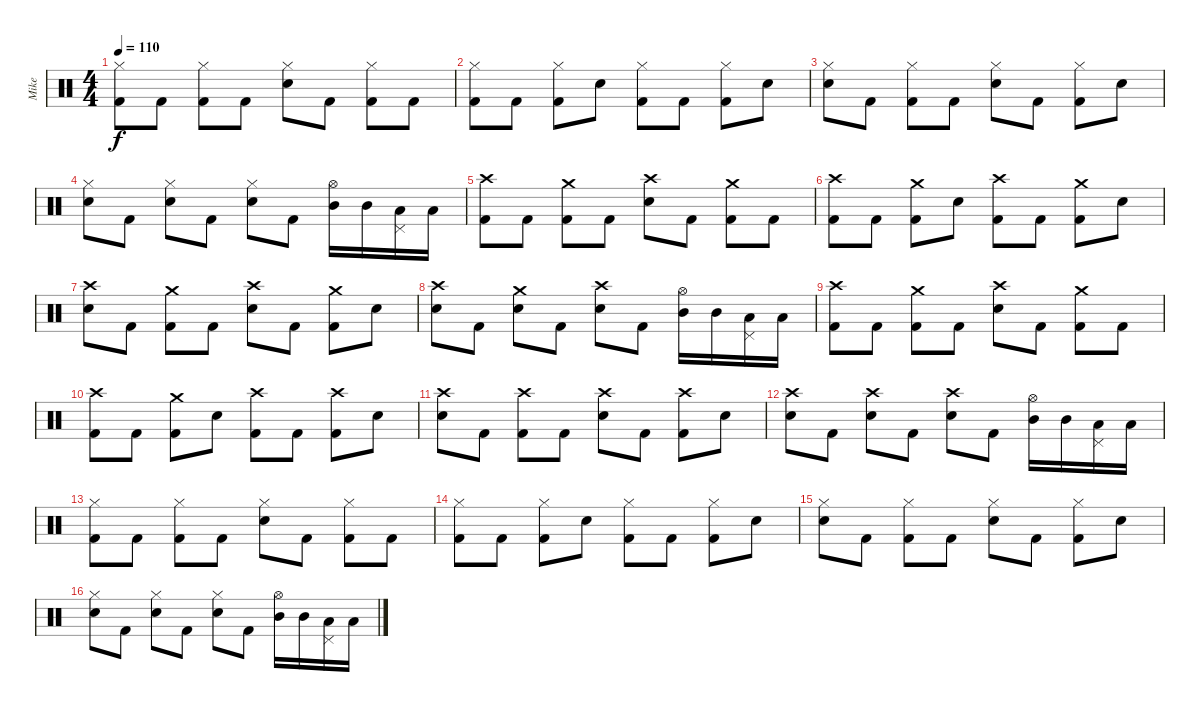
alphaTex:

\track ("Mike" "Mike") {instrument percussion}
\staff {score}
\articulation defaults
\ts (4 4)
\tempo 110
\clef neutral
\ks c
("Hi-Hat (closed)" "Kick (hit) 2").8{dy f} "Kick (hit) 2".8 ("Hi-Hat (closed)" "Kick (hit) 2").8 "Kick (hit) 2".8 ("Hi-Hat (closed)" "Electric Snare (hit)").8 "Kick (hit) 2".8 ("Hi-Hat (closed)" "Kick (hit) 2").8 "Kick (hit) 2".8 |
("Hi-Hat (closed)" "Kick (hit) 2").8 "Kick (hit) 2".8 ("Hi-Hat (closed)" "Kick (hit) 2").8 "Electric Snare (hit)".8 ("Hi-Hat (closed)" "Kick (hit) 2").8 "Kick (hit) 2".8 ("Hi-Hat (closed)" "Kick (hit) 2").8 "Electric Snare (hit)".8 |
("Hi-Hat (closed)" "Electric Snare (hit)").8 "Kick (hit) 2".8 ("Hi-Hat (closed)" "Kick (hit) 2").8 "Kick (hit) 2".8 ("Hi-Hat (closed)" "Electric Snare (hit)").8 "Kick (hit) 2".8 ("Hi-Hat (closed)" "Kick (hit) 2").8 "Electric Snare (hit)".8 |
("Hi-Hat (closed)" "Electric Snare (hit)").8 "Kick (hit) 2".8 ("Hi-Hat (closed)" "Electric Snare (hit)").8 "Kick (hit) 2".8 ("Hi-Hat (closed)" "Electric Snare (hit)").8 "Kick (hit) 2".8 ("Hi-Hat (open)" "Mid Tom (hit)").16 "Mid Tom (hit)".16 ("Pedal Hi-Hat (hit)" "Low Tom (hit)").16 "Low Tom (hit)".16 |
("Crash high (hit)" "Kick (hit) 2").8 "Kick (hit) 2".8 ("Crash medium (hit)" "Kick (hit) 2").8 "Kick (hit) 2".8 ("Crash high (hit)" "Electric Snare (hit)").8 "Kick (hit) 2".8 ("Crash medium (hit)" "Kick (hit) 2").8 "Kick (hit) 2".8 |
("Crash high (hit)" "Kick (hit) 2").8 "Kick (hit) 2".8 ("Crash medium (hit)" "Kick (hit) 2").8 "Electric Snare (hit)".8 ("Crash high (hit)" "Kick (hit) 2").8 "Kick (hit) 2".8 ("Crash medium (hit)" "Kick (hit) 2").8 "Electric Snare (hit)".8 |
("Crash high (hit)" "Electric Snare (hit)").8 "Kick (hit) 2".8 ("Crash medium (hit)" "Kick (hit) 2").8 "Kick (hit) 2".8 ("Crash high (hit)" "Electric Snare (hit)").8 "Kick (hit) 2".8 ("Crash medium (hit)" "Kick (hit) 2").8 "Electric Snare (hit)".8 |
("Crash high (hit)" "Electric Snare (hit)").8 "Kick (hit) 2".8 ("Crash medium (hit)" "Electric Snare (hit)").8 "Kick (hit) 2".8 ("Crash high (hit)" "Electric Snare (hit)").8 "Kick (hit) 2".8 ("Hi-Hat (open)" "Mid Tom (hit)").16 "Mid Tom (hit)".16 ("Pedal Hi-Hat (hit)" "Low Tom (hit)").16 "Low Tom (hit)".16 |
("Crash high (hit)" "Kick (hit) 2").8 "Kick (hit) 2".8 ("Crash medium (hit)" "Kick (hit) 2").8 "Kick (hit) 2".8 ("Crash high (hit)" "Electric Snare (hit)").8 "Kick (hit) 2".8 ("Crash medium (hit)" "Kick (hit) 2").8 "Kick (hit) 2".8 |
("Crash high (hit)" "Kick (hit) 2").8 "Kick (hit) 2".8 ("Crash medium (hit)" "Kick (hit) 2").8 "Electric Snare (hit)".8 ("Crash high (hit)" "Kick (hit) 2").8 "Kick (hit) 2".8 ("Crash high (hit)" "Kick (hit) 2").8 "Electric Snare (hit)".8 |
("Crash high (hit)" "Electric Snare (hit)").8 "Kick (hit) 2".8 ("Crash high (hit)" "Kick (hit) 2").8 "Kick (hit) 2".8 ("Crash high (hit)" "Electric Snare (hit)").8 "Kick (hit) 2".8 ("Crash high (hit)" "Kick (hit) 2").8 "Electric Snare (hit)".8 |
("Crash high (hit)" "Electric Snare (hit)").8 "Kick (hit) 2".8 ("Crash high (hit)" "Electric Snare (hit)").8 "Kick (hit) 2".8 ("Crash high (hit)" "Electric Snare (hit)").8 "Kick (hit) 2".8 ("Hi-Hat (open)" "Mid Tom (hit)").16 "Mid Tom (hit)".16 ("Pedal Hi-Hat (hit)" "Low Tom (hit)").16 "Low Tom (hit)".16 |
("Hi-Hat (closed)" "Kick (hit) 2").8 "Kick (hit) 2".8 ("Hi-Hat (closed)" "Kick (hit) 2").8 "Kick (hit) 2".8 ("Hi-Hat (closed)" "Electric Snare (hit)").8 "Kick (hit) 2".8 ("Hi-Hat (closed)" "Kick (hit) 2").8 "Kick (hit) 2".8 |
("Hi-Hat (closed)" "Kick (hit) 2").8 "Kick (hit) 2".8 ("Hi-Hat (closed)" "Kick (hit) 2").8 "Electric Snare (hit)".8 ("Hi-Hat (closed)" "Kick (hit) 2").8 "Kick (hit) 2".8 ("Hi-Hat (closed)" "Kick (hit) 2").8 "Electric Snare (hit)".8 |
("Hi-Hat (closed)" "Electric Snare (hit)").8 "Kick (hit) 2".8 ("Hi-Hat (closed)" "Kick (hit) 2").8 "Kick (hit) 2".8 ("Hi-Hat (closed)" "Electric Snare (hit)").8 "Kick (hit) 2".8 ("Hi-Hat (closed)" "Kick (hit) 2").8 "Electric Snare (hit)".8 |
("Hi-Hat (closed)" "Electric Snare (hit)").8 "Kick (hit) 2".8 ("Hi-Hat (closed)" "Electric Snare (hit)").8 "Kick (hit) 2".8 ("Hi-Hat (closed)" "Electric Snare (hit)").8 "Kick (hit) 2".8 ("Hi-Hat (open)" "Mid Tom (hit)").16 "Mid Tom (hit)".16 ("Pedal Hi-Hat (hit)" "Low Tom (hit)").16 "Low Tom (hit)".16
